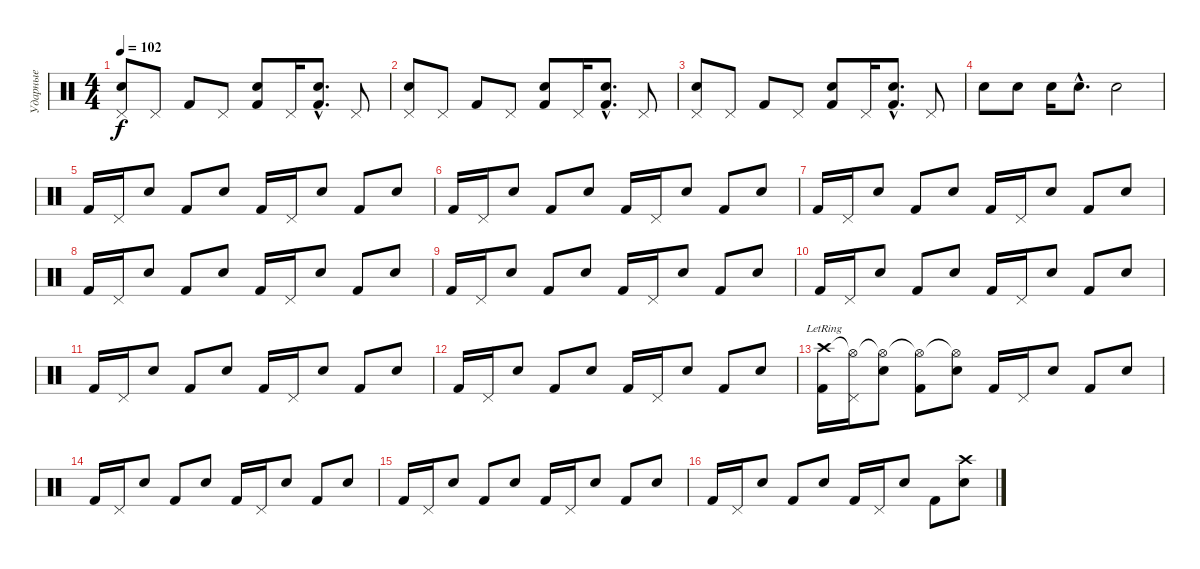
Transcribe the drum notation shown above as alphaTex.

\track ("Ударные" "Ударные") {instrument percussion}
\staff {score}
\articulation defaults
\ts (4 4)
\tempo 102
\clef neutral
\ks c
("Snare (hit) 2" "Pedal Hi-Hat (hit)").8{dy f} "Pedal Hi-Hat (hit)".8 "Kick (hit) 2".8 "Pedal Hi-Hat (hit)".8 ("Snare (hit) 2" "Kick (hit) 2").8 "Pedal Hi-Hat (hit)".16 ("Snare (hit) 2"{hac} "Kick (hit) 2"{hac}).8{d} "Pedal Hi-Hat (hit)".8 |
("Snare (hit) 2" "Pedal Hi-Hat (hit)").8 "Pedal Hi-Hat (hit)".8 "Kick (hit) 2".8 "Pedal Hi-Hat (hit)".8 ("Snare (hit) 2" "Kick (hit) 2").8 "Pedal Hi-Hat (hit)".16 ("Snare (hit) 2"{hac} "Kick (hit) 2"{hac}).8{d} "Pedal Hi-Hat (hit)".8 |
("Snare (hit) 2" "Pedal Hi-Hat (hit)").8 "Pedal Hi-Hat (hit)".8 "Kick (hit) 2".8 "Pedal Hi-Hat (hit)".8 ("Snare (hit) 2" "Kick (hit) 2").8 "Pedal Hi-Hat (hit)".16 ("Snare (hit) 2"{hac} "Kick (hit) 2"{hac}).8{d} "Pedal Hi-Hat (hit)".8 |
"Snare (hit) 2".8 "Snare (hit) 2".8 "Snare (hit) 2".16 "Snare (hit) 2"{hac}.8{d} "Snare (hit) 2".2 |
"Kick (hit) 2".16 "Pedal Hi-Hat (hit)".16 "Snare (hit) 2".8 "Kick (hit) 2".8 "Snare (hit) 2".8 "Kick (hit) 2".16 "Pedal Hi-Hat (hit)".16 "Snare (hit) 2".8 "Kick (hit) 2".8 "Snare (hit) 2".8 |
"Kick (hit) 2".16 "Pedal Hi-Hat (hit)".16 "Snare (hit) 2".8 "Kick (hit) 2".8 "Snare (hit) 2".8 "Kick (hit) 2".16 "Pedal Hi-Hat (hit)".16 "Snare (hit) 2".8 "Kick (hit) 2".8 "Snare (hit) 2".8 |
"Kick (hit) 2".16 "Pedal Hi-Hat (hit)".16 "Snare (hit) 2".8 "Kick (hit) 2".8 "Snare (hit) 2".8 "Kick (hit) 2".16 "Pedal Hi-Hat (hit)".16 "Snare (hit) 2".8 "Kick (hit) 2".8 "Snare (hit) 2".8 |
"Kick (hit) 2".16 "Pedal Hi-Hat (hit)".16 "Snare (hit) 2".8 "Kick (hit) 2".8 "Snare (hit) 2".8 "Kick (hit) 2".16 "Pedal Hi-Hat (hit)".16 "Snare (hit) 2".8 "Kick (hit) 2".8 "Snare (hit) 2".8 |
"Kick (hit) 2".16 "Pedal Hi-Hat (hit)".16 "Snare (hit) 2".8 "Kick (hit) 2".8 "Snare (hit) 2".8 "Kick (hit) 2".16 "Pedal Hi-Hat (hit)".16 "Snare (hit) 2".8 "Kick (hit) 2".8 "Snare (hit) 2".8 |
"Kick (hit) 2".16 "Pedal Hi-Hat (hit)".16 "Snare (hit) 2".8 "Kick (hit) 2".8 "Snare (hit) 2".8 "Kick (hit) 2".16 "Pedal Hi-Hat (hit)".16 "Snare (hit) 2".8 "Kick (hit) 2".8 "Snare (hit) 2".8 |
"Kick (hit) 2".16 "Pedal Hi-Hat (hit)".16 "Snare (hit) 2".8 "Kick (hit) 2".8 "Snare (hit) 2".8 "Kick (hit) 2".16 "Pedal Hi-Hat (hit)".16 "Snare (hit) 2".8 "Kick (hit) 2".8 "Snare (hit) 2".8 |
"Kick (hit) 2".16 "Pedal Hi-Hat (hit)".16 "Snare (hit) 2".8 "Kick (hit) 2".8 "Snare (hit) 2".8 "Kick (hit) 2".16 "Pedal Hi-Hat (hit)".16 "Snare (hit) 2".8 "Kick (hit) 2".8 "Snare (hit) 2".8 |
("Crash high (hit)"{lr} "Kick (hit) 2").16 ("Hi-Hat (open)"{t} "Pedal Hi-Hat (hit)").16 ("Hi-Hat (open)"{t} "Snare (hit) 2").8 ("Hi-Hat (open)"{t} "Kick (hit) 2").8 ("Hi-Hat (open)"{t} "Snare (hit) 2").8 "Kick (hit) 2".16 "Pedal Hi-Hat (hit)".16 "Snare (hit) 2".8 "Kick (hit) 2".8 "Snare (hit) 2".8 |
"Kick (hit) 2".16 "Pedal Hi-Hat (hit)".16 "Snare (hit) 2".8 "Kick (hit) 2".8 "Snare (hit) 2".8 "Kick (hit) 2".16 "Pedal Hi-Hat (hit)".16 "Snare (hit) 2".8 "Kick (hit) 2".8 "Snare (hit) 2".8 |
"Kick (hit) 2".16 "Pedal Hi-Hat (hit)".16 "Snare (hit) 2".8 "Kick (hit) 2".8 "Snare (hit) 2".8 "Kick (hit) 2".16 "Pedal Hi-Hat (hit)".16 "Snare (hit) 2".8 "Kick (hit) 2".8 "Snare (hit) 2".8 |
"Kick (hit) 2".16 "Pedal Hi-Hat (hit)".16 "Snare (hit) 2".8 "Kick (hit) 2".8 "Snare (hit) 2".8 "Kick (hit) 2".16 "Pedal Hi-Hat (hit)".16 "Snare (hit) 2".8 "Kick (hit) 2".8 ("Crash high (hit)" "Snare (hit) 2").8
